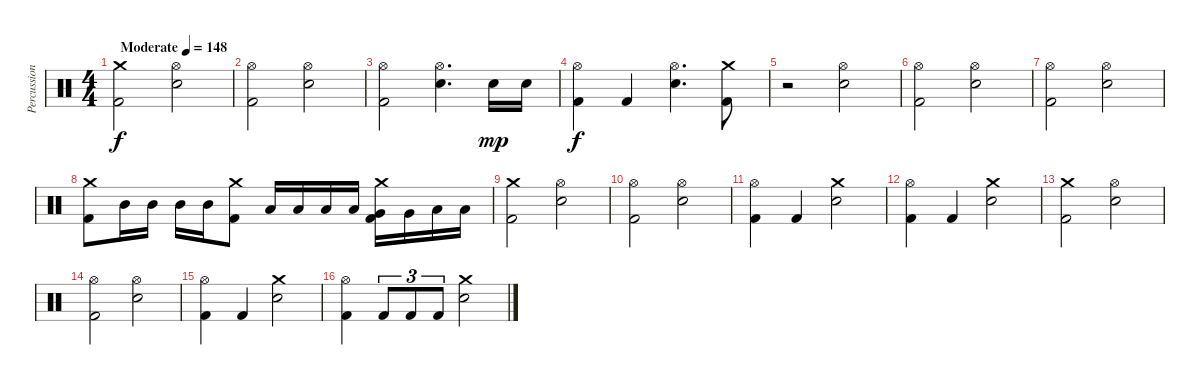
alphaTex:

\track ("Percussion" "Percussion") {instrument percussion}
\staff {score}
\articulation defaults
\ts (4 4)
\tempo (148 "Moderate")
\clef neutral
\ks c
("Crash medium (hit)" "Kick (hit) 2").2{dy f} ("Hi-Hat (open)" "Electric Snare (hit)").2 |
("Hi-Hat (open)" "Kick (hit) 2").2 ("Hi-Hat (open)" "Electric Snare (hit)").2 |
("Hi-Hat (open)" "Kick (hit) 2").2 ("Hi-Hat (open)" "Electric Snare (hit)").4{d} "Electric Snare (hit)".16{dy mp} "Electric Snare (hit)".16 |
("Hi-Hat (open)" "Kick (hit) 2").4{dy f} "Kick (hit) 2".4 ("Hi-Hat (open)" "Electric Snare (hit)").4{d} ("Crash medium (hit)" "Kick (hit) 2").8 |
r.2 ("Hi-Hat (open)" "Electric Snare (hit)").2 |
("Hi-Hat (open)" "Kick (hit) 2").2 ("Hi-Hat (open)" "Electric Snare (hit)").2 |
("Hi-Hat (open)" "Kick (hit) 2").2 ("Hi-Hat (open)" "Electric Snare (hit)").2 |
("Crash medium (hit)" "Kick (hit) 2").8 "Mid Tom (hit)".16 "Mid Tom (hit)".16 "Mid Tom (hit)".16 "Mid Tom (hit)".16 ("Crash medium (hit)" "Kick (hit) 2").8 "Low Tom (hit)".16 "Low Tom (hit)".16 "Low Tom (hit)".16 "Low Tom (hit)".16 ("Crash medium (hit)" "Very Low Tom (hit)" "Kick (hit) 2").16 "Very Low Tom (hit)".16 "Low Floor Tom (hit)".16 "Low Floor Tom (hit)".16 |
("Crash medium (hit)" "Kick (hit) 2").2 ("Hi-Hat (open)" "Electric Snare (hit)").2 |
("Hi-Hat (open)" "Kick (hit) 2").2 ("Hi-Hat (open)" "Electric Snare (hit)").2 |
("Hi-Hat (open)" "Kick (hit) 2").4 "Kick (hit) 2".4 ("Crash medium (hit)" "Electric Snare (hit)").2 |
("Hi-Hat (open)" "Kick (hit) 2").4 "Kick (hit) 2".4 ("Crash medium (hit)" "Electric Snare (hit)").2 |
("Crash medium (hit)" "Kick (hit) 2").2 ("Hi-Hat (open)" "Electric Snare (hit)").2 |
("Hi-Hat (open)" "Kick (hit) 2").2 ("Hi-Hat (open)" "Electric Snare (hit)").2 |
("Hi-Hat (open)" "Kick (hit) 2").4 "Kick (hit) 2".4 ("Crash medium (hit)" "Electric Snare (hit)").2 |
("Hi-Hat (open)" "Kick (hit) 2").4 "Kick (hit) 2".8{tu (3 2)} "Kick (hit) 2".8{tu (3 2)} "Kick (hit) 2".8{tu (3 2)} ("Crash medium (hit)" "Electric Snare (hit)").2
